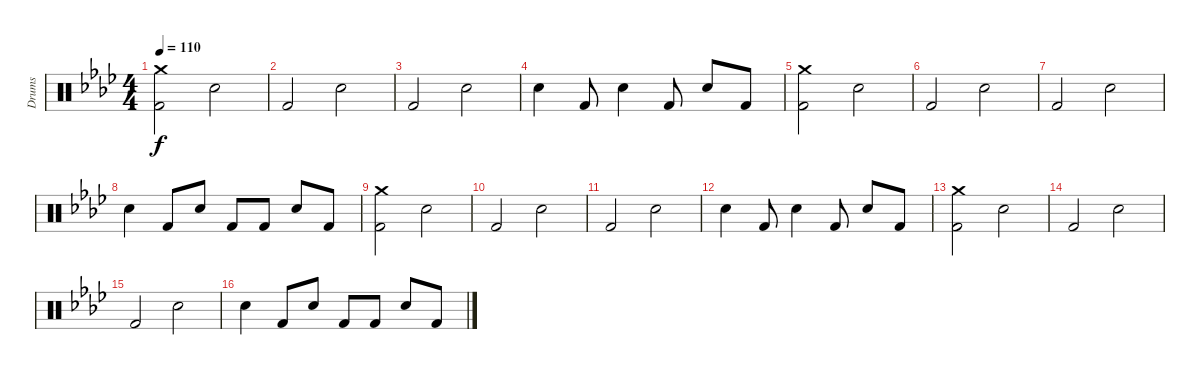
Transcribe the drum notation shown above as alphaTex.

\track ("Drums" "Drums") {instrument percussion}
\staff {score}
\articulation defaults
\ts (4 4)
\tempo 110
\clef neutral
\ks fminor
("Crash medium (hit)" "Kick (hit) 2").2{dy f} "Snare (hit) 2".2 |
"Kick (hit) 2".2 "Snare (hit) 2".2 |
"Kick (hit) 2".2 "Snare (hit) 2".2 |
"Snare (hit) 2".4 "Kick (hit) 2".8 "Snare (hit) 2".4 "Kick (hit) 2".8 "Snare (hit) 2".8 "Kick (hit) 2".8 |
("Crash medium (hit)" "Kick (hit) 2").2 "Snare (hit) 2".2 |
"Kick (hit) 2".2 "Snare (hit) 2".2 |
"Kick (hit) 2".2 "Snare (hit) 2".2 |
"Snare (hit) 2".4 "Kick (hit) 2".8 "Snare (hit) 2".8 "Kick (hit) 2".8 "Kick (hit) 2".8 "Snare (hit) 2".8 "Kick (hit) 2".8 |
("Crash medium (hit)" "Kick (hit) 2").2{volume 9} "Snare (hit) 2".2 |
"Kick (hit) 2".2 "Snare (hit) 2".2 |
"Kick (hit) 2".2 "Snare (hit) 2".2 |
"Snare (hit) 2".4 "Kick (hit) 2".8 "Snare (hit) 2".4 "Kick (hit) 2".8 "Snare (hit) 2".8 "Kick (hit) 2".8 |
("Crash medium (hit)" "Kick (hit) 2").2{volume 6} "Snare (hit) 2".2 |
"Kick (hit) 2".2 "Snare (hit) 2".2 |
"Kick (hit) 2".2 "Snare (hit) 2".2 |
"Snare (hit) 2".4 "Kick (hit) 2".8 "Snare (hit) 2".8 "Kick (hit) 2".8 "Kick (hit) 2".8 "Snare (hit) 2".8 "Kick (hit) 2".8
